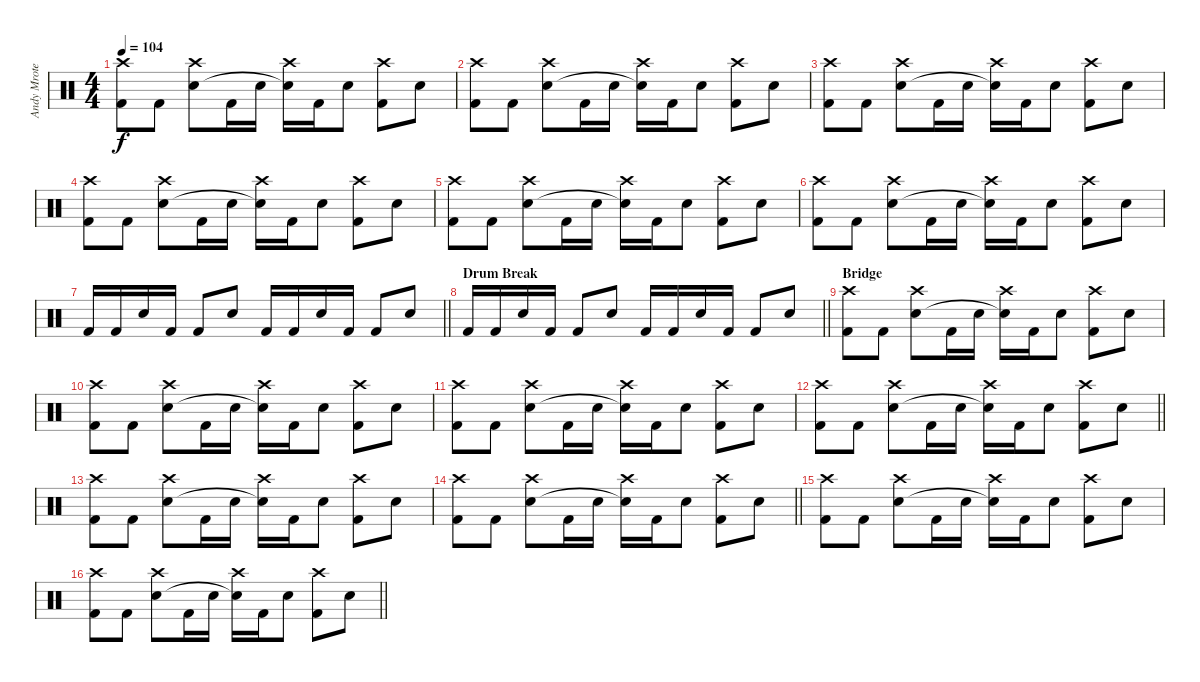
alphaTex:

\track ("Andy Mrotek (Percussion)" "Andy Mrote") {instrument percussion}
\staff {score}
\articulation defaults
\ts (4 4)
\tempo 104
\clef neutral
\ks c
("Crash high (hit)" "Kick (hit) 2").8{dy f} "Kick (hit) 2".8 ("Crash high (hit)" "Snare (hit) 2").8 "Kick (hit) 2".16 "Snare (hit) 2".16 ("Crash high (hit)" "Snare (hit) 2"{t}).16 "Kick (hit) 2".16 "Snare (hit) 2".8 ("Crash high (hit)" "Kick (hit) 2").8 "Snare (hit) 2".8 |
("Crash high (hit)" "Kick (hit) 2").8 "Kick (hit) 2".8 ("Crash high (hit)" "Snare (hit) 2").8 "Kick (hit) 2".16 "Snare (hit) 2".16 ("Crash high (hit)" "Snare (hit) 2"{t}).16 "Kick (hit) 2".16 "Snare (hit) 2".8 ("Crash high (hit)" "Kick (hit) 2").8 "Snare (hit) 2".8 |
("Crash high (hit)" "Kick (hit) 2").8 "Kick (hit) 2".8 ("Crash high (hit)" "Snare (hit) 2").8 "Kick (hit) 2".16 "Snare (hit) 2".16 ("Crash high (hit)" "Snare (hit) 2"{t}).16 "Kick (hit) 2".16 "Snare (hit) 2".8 ("Crash high (hit)" "Kick (hit) 2").8 "Snare (hit) 2".8 |
("Crash high (hit)" "Kick (hit) 2").8 "Kick (hit) 2".8 ("Crash high (hit)" "Snare (hit) 2").8 "Kick (hit) 2".16 "Snare (hit) 2".16 ("Crash high (hit)" "Snare (hit) 2"{t}).16 "Kick (hit) 2".16 "Snare (hit) 2".8 ("Crash high (hit)" "Kick (hit) 2").8 "Snare (hit) 2".8 |
("Crash high (hit)" "Kick (hit) 2").8 "Kick (hit) 2".8 ("Crash high (hit)" "Snare (hit) 2").8 "Kick (hit) 2".16 "Snare (hit) 2".16 ("Crash high (hit)" "Snare (hit) 2"{t}).16 "Kick (hit) 2".16 "Snare (hit) 2".8 ("Crash high (hit)" "Kick (hit) 2").8 "Snare (hit) 2".8 |
("Crash high (hit)" "Kick (hit) 2").8 "Kick (hit) 2".8 ("Crash high (hit)" "Snare (hit) 2").8 "Kick (hit) 2".16 "Snare (hit) 2".16 ("Crash high (hit)" "Snare (hit) 2"{t}).16 "Kick (hit) 2".16 "Snare (hit) 2".8 ("Crash high (hit)" "Kick (hit) 2").8 "Snare (hit) 2".8 |
\barLineRight lightlight "Kick (hit) 2".16 "Kick (hit) 2".16 "Snare (hit) 2".16 "Kick (hit) 2".16 "Kick (hit) 2".8 "Snare (hit) 2".8 "Kick (hit) 2".16 "Kick (hit) 2".16 "Snare (hit) 2".16 "Kick (hit) 2".16 "Kick (hit) 2".8 "Snare (hit) 2".8
|
\section ("" "Drum Break")
\barLineRight lightlight "Kick (hit) 2".16 "Kick (hit) 2".16 "Snare (hit) 2".16 "Kick (hit) 2".16 "Kick (hit) 2".8 "Snare (hit) 2".8 "Kick (hit) 2".16 "Kick (hit) 2".16 "Snare (hit) 2".16 "Kick (hit) 2".16 "Kick (hit) 2".8 "Snare (hit) 2".8
|
\section ("" "Bridge")
("Crash high (hit)" "Kick (hit) 2").8 "Kick (hit) 2".8 ("Crash high (hit)" "Snare (hit) 2").8 "Kick (hit) 2".16 "Snare (hit) 2".16 ("Crash high (hit)" "Snare (hit) 2"{t}).16 "Kick (hit) 2".16 "Snare (hit) 2".8 ("Crash high (hit)" "Kick (hit) 2").8 "Snare (hit) 2".8 |
("Crash high (hit)" "Kick (hit) 2").8 "Kick (hit) 2".8 ("Crash high (hit)" "Snare (hit) 2").8 "Kick (hit) 2".16 "Snare (hit) 2".16 ("Crash high (hit)" "Snare (hit) 2"{t}).16 "Kick (hit) 2".16 "Snare (hit) 2".8 ("Crash high (hit)" "Kick (hit) 2").8 "Snare (hit) 2".8 |
("Crash high (hit)" "Kick (hit) 2").8 "Kick (hit) 2".8 ("Crash high (hit)" "Snare (hit) 2").8 "Kick (hit) 2".16 "Snare (hit) 2".16 ("Crash high (hit)" "Snare (hit) 2"{t}).16 "Kick (hit) 2".16 "Snare (hit) 2".8 ("Crash high (hit)" "Kick (hit) 2").8 "Snare (hit) 2".8 |
\barLineRight lightlight
("Crash high (hit)" "Kick (hit) 2").8 "Kick (hit) 2".8 ("Crash high (hit)" "Snare (hit) 2").8 "Kick (hit) 2".16 "Snare (hit) 2".16 ("Crash high (hit)" "Snare (hit) 2"{t}).16 "Kick (hit) 2".16 "Snare (hit) 2".8 ("Crash high (hit)" "Kick (hit) 2").8 "Snare (hit) 2".8 |
("Crash high (hit)" "Kick (hit) 2").8 "Kick (hit) 2".8 ("Crash high (hit)" "Snare (hit) 2").8 "Kick (hit) 2".16 "Snare (hit) 2".16 ("Crash high (hit)" "Snare (hit) 2"{t}).16 "Kick (hit) 2".16 "Snare (hit) 2".8 ("Crash high (hit)" "Kick (hit) 2").8 "Snare (hit) 2".8 |
\barLineRight lightlight
("Crash high (hit)" "Kick (hit) 2").8 "Kick (hit) 2".8 ("Crash high (hit)" "Snare (hit) 2").8 "Kick (hit) 2".16 "Snare (hit) 2".16 ("Crash high (hit)" "Snare (hit) 2"{t}).16 "Kick (hit) 2".16 "Snare (hit) 2".8 ("Crash high (hit)" "Kick (hit) 2").8 "Snare (hit) 2".8 |
("Crash high (hit)" "Kick (hit) 2").8 "Kick (hit) 2".8 ("Crash high (hit)" "Snare (hit) 2").8 "Kick (hit) 2".16 "Snare (hit) 2".16 ("Crash high (hit)" "Snare (hit) 2"{t}).16 "Kick (hit) 2".16 "Snare (hit) 2".8 ("Crash high (hit)" "Kick (hit) 2").8 "Snare (hit) 2".8 |
\barLineRight lightlight
("Crash high (hit)" "Kick (hit) 2").8 "Kick (hit) 2".8 ("Crash high (hit)" "Snare (hit) 2").8 "Kick (hit) 2".16 "Snare (hit) 2".16 ("Crash high (hit)" "Snare (hit) 2"{t}).16 "Kick (hit) 2".16 "Snare (hit) 2".8 ("Crash high (hit)" "Kick (hit) 2").8 "Snare (hit) 2".8
